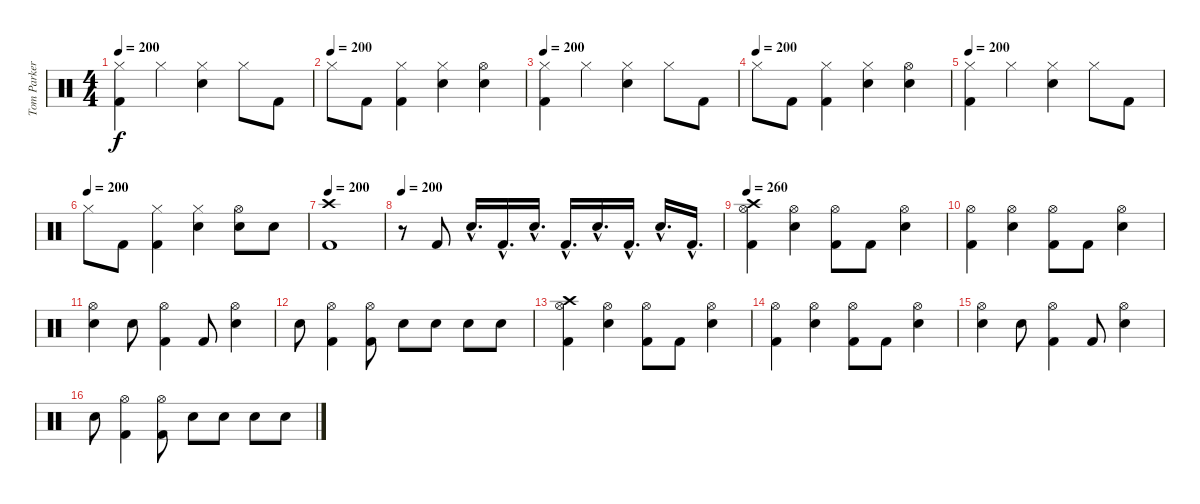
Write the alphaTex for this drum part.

\track ("Tom Parker" "Tom Parker") {instrument percussion}
\staff {score}
\articulation defaults
\ts (4 4)
\tempo 200
\clef neutral
\ks c
("Hi-Hat (closed)" "Kick (hit) 2").4{dy f} "Hi-Hat (closed)".4 ("Hi-Hat (closed)" "Electric Snare (hit)").4 "Hi-Hat (closed)".8 "Kick (hit) 2".8 |
\tempo (200)
"Hi-Hat (closed)".8 "Kick (hit) 2".8 ("Hi-Hat (closed)" "Kick (hit) 2").4 ("Hi-Hat (closed)" "Electric Snare (hit)").4 ("Hi-Hat (open)" "Electric Snare (hit)").4 |
\tempo 200
("Hi-Hat (closed)" "Kick (hit) 2").4 "Hi-Hat (closed)".4 ("Hi-Hat (closed)" "Electric Snare (hit)").4 "Hi-Hat (closed)".8 "Kick (hit) 2".8 |
\tempo (200)
"Hi-Hat (closed)".8 "Kick (hit) 2".8 ("Hi-Hat (closed)" "Kick (hit) 2").4 ("Hi-Hat (closed)" "Electric Snare (hit)").4 ("Hi-Hat (open)" "Electric Snare (hit)").4 |
\tempo 200
("Hi-Hat (closed)" "Kick (hit) 2").4 "Hi-Hat (closed)".4 ("Hi-Hat (closed)" "Electric Snare (hit)").4 "Hi-Hat (closed)".8 "Kick (hit) 2".8 |
\tempo (200)
"Hi-Hat (closed)".8 "Kick (hit) 2".8 ("Hi-Hat (closed)" "Kick (hit) 2").4 ("Hi-Hat (closed)" "Electric Snare (hit)").4 ("Hi-Hat (open)" "Electric Snare (hit)").8 "Electric Snare (hit)".8 |
\tempo 200
("Crash high (hit)" "Kick (hit) 2").1 |
\tempo 200
r.8 "Kick (hit) 2".8 "Electric Snare (hit)"{hac}.16{d} "Kick (hit) 2"{hac}.16{d} "Electric Snare (hit)"{hac}.16{d} "Kick (hit) 2"{hac}.16{d} "Electric Snare (hit)"{hac}.16{d} "Kick (hit) 2"{hac}.16{d} "Electric Snare (hit)"{hac}.16{d} "Kick (hit) 2"{hac}.16{d} |
\tempo 260
("Crash high (hit)" "Hi-Hat (open)" "Kick (hit) 2").4 ("Hi-Hat (open)" "Electric Snare (hit)").4 ("Hi-Hat (open)" "Kick (hit) 2").8 "Kick (hit) 2".8 ("Hi-Hat (open)" "Electric Snare (hit)").4 |
("Hi-Hat (open)" "Kick (hit) 2").4 ("Hi-Hat (open)" "Electric Snare (hit)").4 ("Hi-Hat (open)" "Kick (hit) 2").8 "Kick (hit) 2".8 ("Hi-Hat (open)" "Electric Snare (hit)").4 |
("Hi-Hat (open)" "Electric Snare (hit)").4 "Electric Snare (hit)".8 ("Hi-Hat (open)" "Kick (hit) 2").4 "Kick (hit) 2".8 ("Hi-Hat (open)" "Electric Snare (hit)").4 |
"Electric Snare (hit)".8 ("Hi-Hat (open)" "Kick (hit) 2").4 ("Hi-Hat (open)" "Kick (hit) 2").8 "Electric Snare (hit)".8 "Electric Snare (hit)".8 "Electric Snare (hit)".8 "Electric Snare (hit)".8 |
("Crash high (hit)" "Hi-Hat (open)" "Kick (hit) 2").4 ("Hi-Hat (open)" "Electric Snare (hit)").4 ("Hi-Hat (open)" "Kick (hit) 2").8 "Kick (hit) 2".8 ("Hi-Hat (open)" "Electric Snare (hit)").4 |
("Hi-Hat (open)" "Kick (hit) 2").4 ("Hi-Hat (open)" "Electric Snare (hit)").4 ("Hi-Hat (open)" "Kick (hit) 2").8 "Kick (hit) 2".8 ("Hi-Hat (open)" "Electric Snare (hit)").4 |
("Hi-Hat (open)" "Electric Snare (hit)").4 "Electric Snare (hit)".8 ("Hi-Hat (open)" "Kick (hit) 2").4 "Kick (hit) 2".8 ("Hi-Hat (open)" "Electric Snare (hit)").4 |
"Electric Snare (hit)".8 ("Hi-Hat (open)" "Kick (hit) 2").4 ("Hi-Hat (open)" "Kick (hit) 2").8 "Electric Snare (hit)".8 "Electric Snare (hit)".8 "Electric Snare (hit)".8 "Electric Snare (hit)".8
